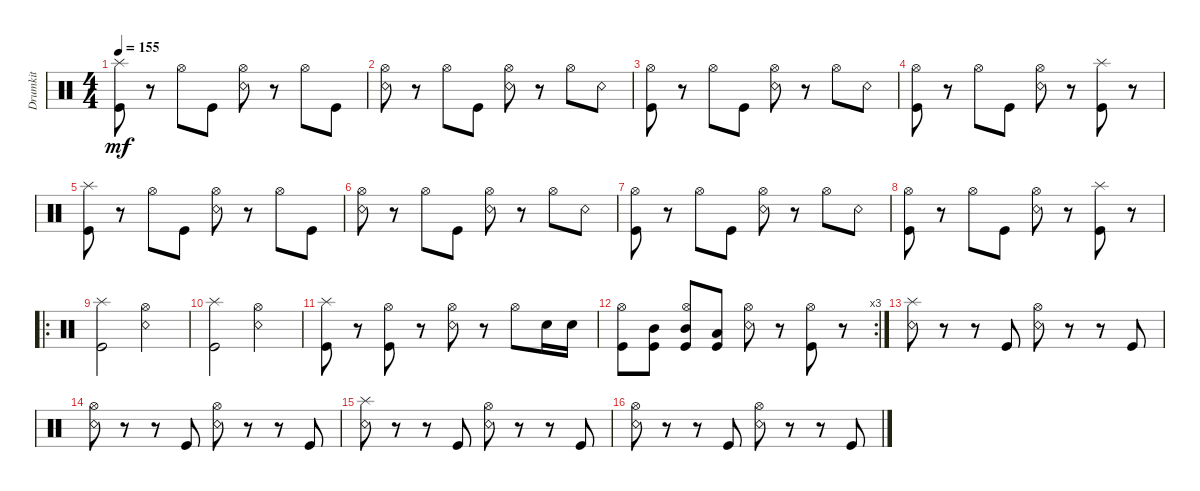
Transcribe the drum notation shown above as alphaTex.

\track ("Drumkit" "Drumkit") {instrument percussion}
\staff {score}
\articulation defaults
\ts (4 4)
\tempo 155
\clef neutral
\ks c
("Kick (hit)" "Splash (hit)").8{dy mf} r.8 "Hi-Hat (open)".8 "Kick (hit)".8 ("Snare (rim shot)" "Hi-Hat (open)").8 r.8 "Hi-Hat (open)".8 "Kick (hit)".8 |
("Snare (rim shot)" "Hi-Hat (open)").8 r.8 "Hi-Hat (open)".8 "Kick (hit)".8 ("Hi-Hat (open)" "Snare (rim shot)").8 r.8 "Hi-Hat (open)".8 "Snare (rim shot)".8 |
("Hi-Hat (open)" "Kick (hit)").8 r.8 "Hi-Hat (open)".8 "Kick (hit)".8 ("Hi-Hat (open)" "Snare (rim shot)").8 r.8 "Hi-Hat (open)".8 "Snare (rim shot)".8 |
("Kick (hit)" "Hi-Hat (open)").8 r.8 "Hi-Hat (open)".8 "Kick (hit)".8 ("Snare (rim shot)" "Hi-Hat (open)").8 r.8 ("Kick (hit)" "Splash (hit)").8 r.8 |
("Kick (hit)" "Splash (hit)").8 r.8 "Hi-Hat (open)".8 "Kick (hit)".8 ("Snare (rim shot)" "Hi-Hat (open)").8 r.8 "Hi-Hat (open)".8 "Kick (hit)".8 |
("Snare (rim shot)" "Hi-Hat (open)").8 r.8 "Hi-Hat (open)".8 "Kick (hit)".8 ("Hi-Hat (open)" "Snare (rim shot)").8 r.8 "Hi-Hat (open)".8 "Snare (rim shot)".8 |
("Hi-Hat (open)" "Kick (hit)").8 r.8 "Hi-Hat (open)".8 "Kick (hit)".8 ("Hi-Hat (open)" "Snare (rim shot)").8 r.8 "Hi-Hat (open)".8 "Snare (rim shot)".8 |
("Kick (hit)" "Hi-Hat (open)").8 r.8 "Hi-Hat (open)".8 "Kick (hit)".8 ("Snare (rim shot)" "Hi-Hat (open)").8 r.8 ("Kick (hit)" "Splash (hit)").8 r.8 |
\ro
("Kick (hit)" "Splash (hit)").2 ("Snare (rim shot)" "Hi-Hat (open)").2 |
("Kick (hit)" "Splash (hit)").2 ("Snare (rim shot)" "Hi-Hat (open)").2 |
("Kick (hit)" "Splash (hit)").8 r.8 ("Kick (hit)" "Hi-Hat (open)").8 r.8 ("Snare (rim shot)" "Hi-Hat (open)").8 r.8 "Hi-Hat (open)".8 "Snare (hit) 2".16 "Snare (hit) 2".16 |
\rc 3
("Kick (hit)" "Hi-Hat (open)").8 ("Kick (hit)" "Mid Tom (hit)").8 ("Kick (hit)" "Hi-Hat (open)" "Mid Tom (hit)").8 ("Kick (hit)" "Low Tom (hit)").8 ("Hi-Hat (open)" "Snare (rim shot)").8 r.8 ("Hi-Hat (open)" "Kick (hit)").8 r.8 |
("Snare (rim shot)" "Splash (hit)").8 r.8 r.8 "Kick (hit)".8 ("Snare (rim shot)" "Hi-Hat (open)").8 r.8 r.8 "Kick (hit)".8 |
("Snare (rim shot)" "Hi-Hat (open)").8 r.8 r.8 "Kick (hit)".8 ("Snare (rim shot)" "Hi-Hat (open)").8 r.8 r.8 "Kick (hit)".8 |
("Snare (rim shot)" "Splash (hit)").8 r.8 r.8 "Kick (hit)".8 ("Snare (rim shot)" "Hi-Hat (open)").8 r.8 r.8 "Kick (hit)".8 |
("Snare (rim shot)" "Hi-Hat (open)").8 r.8 r.8 "Kick (hit)".8 ("Snare (rim shot)" "Hi-Hat (open)").8 r.8 r.8 "Kick (hit)".8
